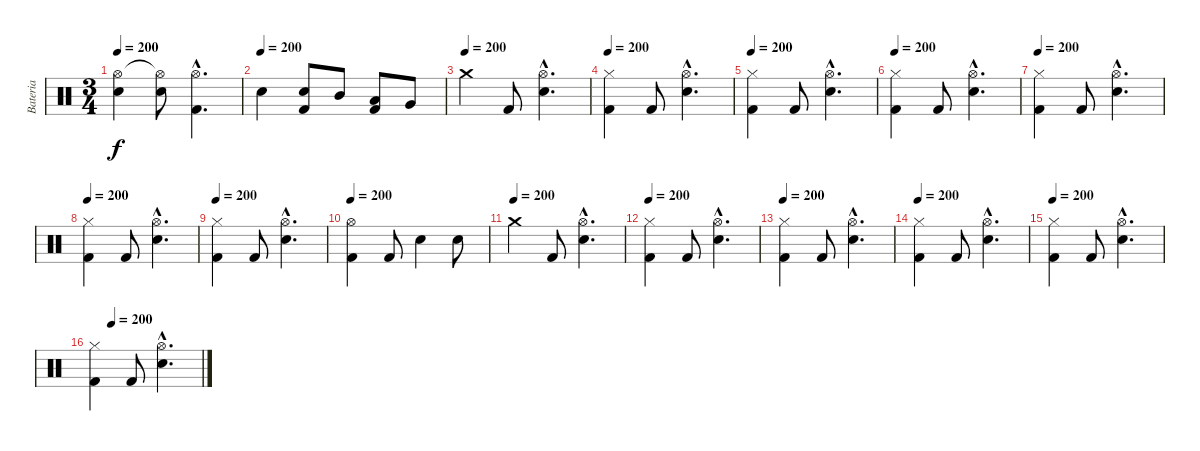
\track ("Bateria" "Bateria") {instrument percussion}
\staff {score}
\articulation defaults
\ts (3 4)
\tempo 200
\clef neutral
\ks c
("Hi-Hat (open)" "Electric Snare (hit)").4{dy f} ("Hi-Hat (open)"{t} "Electric Snare (hit)").8 ("Hi-Hat (open)"{hac} "Kick (hit) 2"{hac}).4{d} |
\tempo (200)
"Electric Snare (hit)".4 ("Electric Snare (hit)" "Kick (hit) 2").8 "Mid Tom (hit)".8 ("Low Tom (hit)" "Kick (hit) 2").8 "Very Low Tom (hit)".8 |
\tempo (200)
"Crash medium (hit)".4 "Kick (hit) 2".8 ("Hi-Hat (open)"{hac} "Electric Snare (hit)"{hac}).4{d} |
\tempo 200
("Hi-Hat (closed)" "Kick (hit) 2").4 "Kick (hit) 2".8 ("Hi-Hat (open)"{hac} "Electric Snare (hit)"{hac}).4{d} |
\tempo 200
("Hi-Hat (closed)" "Kick (hit) 2").4 "Kick (hit) 2".8 ("Hi-Hat (open)"{hac} "Electric Snare (hit)"{hac}).4{d} |
\tempo 200
("Hi-Hat (closed)" "Kick (hit) 2").4 "Kick (hit) 2".8 ("Hi-Hat (open)"{hac} "Electric Snare (hit)"{hac}).4{d} |
\tempo 200
("Hi-Hat (closed)" "Kick (hit) 2").4 "Kick (hit) 2".8 ("Hi-Hat (open)"{hac} "Electric Snare (hit)"{hac}).4{d} |
\tempo 200
("Hi-Hat (closed)" "Kick (hit) 2").4 "Kick (hit) 2".8 ("Hi-Hat (open)"{hac} "Electric Snare (hit)"{hac}).4{d} |
\tempo 200
("Hi-Hat (closed)" "Kick (hit) 2").4 "Kick (hit) 2".8 ("Hi-Hat (open)"{hac} "Electric Snare (hit)"{hac}).4{d} |
\tempo 200
("Hi-Hat (open)" "Kick (hit) 2").4 "Kick (hit) 2".8 "Electric Snare (hit)".4 "Electric Snare (hit)".8 |
\tempo (200)
"Crash medium (hit)".4 "Kick (hit) 2".8 ("Hi-Hat (open)"{hac} "Electric Snare (hit)"{hac}).4{d} |
\tempo 200
("Hi-Hat (closed)" "Kick (hit) 2").4 "Kick (hit) 2".8 ("Hi-Hat (open)"{hac} "Electric Snare (hit)"{hac}).4{d} |
\tempo 200
("Hi-Hat (closed)" "Kick (hit) 2").4 "Kick (hit) 2".8 ("Hi-Hat (open)"{hac} "Electric Snare (hit)"{hac}).4{d} |
\tempo 200
("Hi-Hat (closed)" "Kick (hit) 2").4 "Kick (hit) 2".8 ("Hi-Hat (open)"{hac} "Electric Snare (hit)"{hac}).4{d} |
\tempo 200
("Hi-Hat (closed)" "Kick (hit) 2").4 "Kick (hit) 2".8 ("Hi-Hat (open)"{hac} "Electric Snare (hit)"{hac}).4{d} |
\tempo (200 0.16666666666666666)
("Hi-Hat (closed)" "Kick (hit) 2").4 "Kick (hit) 2".8 ("Hi-Hat (open)"{hac} "Electric Snare (hit)"{hac}).4{d}
